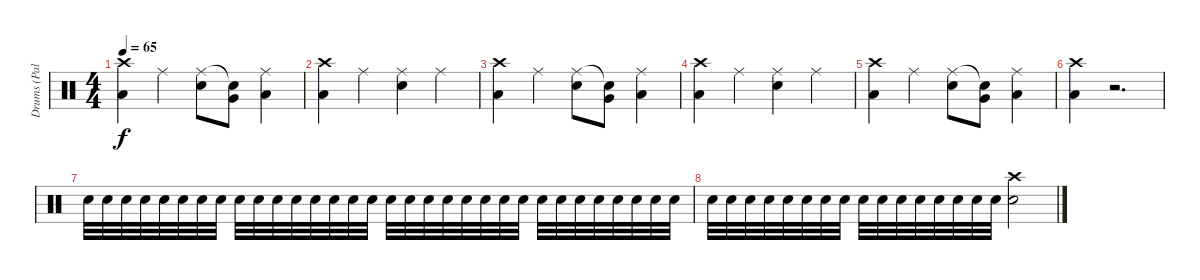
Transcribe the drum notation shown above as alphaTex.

\track ("Drums (Palmer)" "Drums (Pal") {instrument percussion}
\staff {score}
\articulation defaults
\ts (4 4)
\tempo 65
\clef neutral
\ks c
("Crash high (hit)" "Low Floor Tom (hit)").4{dy f} "Ride (middle)".4 ("Ride (middle)" "Snare (hit) 2").8 ("Snare (hit)"{t} "Very Low Tom (hit)").8 ("Ride (middle)" "Low Floor Tom (hit)").4 |
("Crash high (hit)" "Low Floor Tom (hit)").4 "Ride (middle)".4 ("Ride (middle)" "Snare (hit) 2").4 "Ride (middle)".4 |
("Crash high (hit)" "Low Floor Tom (hit)").4 "Ride (middle)".4 ("Ride (middle)" "Snare (hit) 2").8 ("Snare (hit)"{t} "Very Low Tom (hit)").8 ("Ride (middle)" "Low Floor Tom (hit)").4 |
("Crash high (hit)" "Low Floor Tom (hit)").4 "Ride (middle)".4 ("Ride (middle)" "Snare (hit) 2").4 "Ride (middle)".4 |
("Crash high (hit)" "Low Floor Tom (hit)").4 "Ride (middle)".4 ("Ride (middle)" "Snare (hit) 2").8 ("Snare (hit)"{t} "Very Low Tom (hit)").8 ("Ride (middle)" "Low Floor Tom (hit)").4 |
("Crash high (hit)" "Low Floor Tom (hit)").4 r.2{d} |
"Snare (hit) 2".32 "Snare (hit) 2".32 "Snare (hit) 2".32 "Snare (hit) 2".32 "Snare (hit) 2".32 "Snare (hit) 2".32 "Snare (hit) 2".32 "Snare (hit) 2".32 "Snare (hit) 2".32 "Snare (hit) 2".32 "Snare (hit) 2".32 "Snare (hit) 2".32 "Snare (hit) 2".32 "Snare (hit) 2".32 "Snare (hit) 2".32 "Snare (hit) 2".32 "Snare (hit) 2".32 "Snare (hit) 2".32 "Snare (hit) 2".32 "Snare (hit) 2".32 "Snare (hit) 2".32 "Snare (hit) 2".32 "Snare (hit) 2".32 "Snare (hit) 2".32 "Snare (hit) 2".32 "Snare (hit) 2".32 "Snare (hit) 2".32 "Snare (hit) 2".32 "Snare (hit) 2".32 "Snare (hit) 2".32 "Snare (hit) 2".32 "Snare (hit) 2".32 |
"Snare (hit) 2".32 "Snare (hit) 2".32 "Snare (hit) 2".32 "Snare (hit) 2".32 "Snare (hit) 2".32 "Snare (hit) 2".32 "Snare (hit) 2".32 "Snare (hit) 2".32 "Snare (hit) 2".32 "Snare (hit) 2".32 "Snare (hit) 2".32 "Snare (hit) 2".32 "Snare (hit) 2".32 "Snare (hit) 2".32 "Snare (hit) 2".32 "Snare (hit) 2".32 ("Crash high (hit)" "Snare (hit) 2").2
